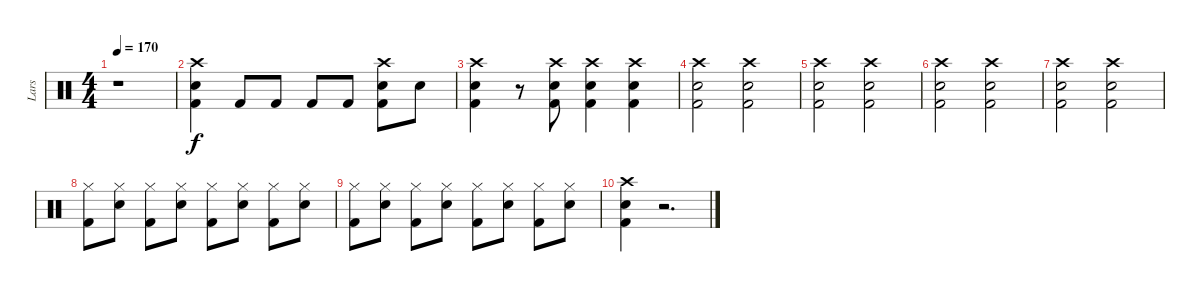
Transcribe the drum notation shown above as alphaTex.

\track ("Lars" "Lars") {instrument percussion}
\staff {score}
\articulation defaults
\ts (4 4)
\tempo 170
\clef neutral
\ks c
r.1{dy f} |
("Crash high (hit)" "Electric Snare (hit)" "Kick (hit) 2").4 "Kick (hit) 2".8 "Kick (hit) 2".8 "Kick (hit) 2".8 "Kick (hit) 2".8 ("Crash high (hit)" "Electric Snare (hit)" "Kick (hit) 2").8 "Electric Snare (hit)".8 |
("Crash high (hit)" "Electric Snare (hit)" "Kick (hit) 2").4 r.8 ("Crash high (hit)" "Electric Snare (hit)" "Kick (hit) 2").8 ("Crash high (hit)" "Electric Snare (hit)" "Kick (hit) 2").4 ("Crash high (hit)" "Electric Snare (hit)" "Kick (hit) 2").4 |
("Crash high (hit)" "Electric Snare (hit)" "Kick (hit) 2").2 ("Crash high (hit)" "Electric Snare (hit)" "Kick (hit) 2").2 |
("Crash high (hit)" "Electric Snare (hit)" "Kick (hit) 2").2 ("Crash high (hit)" "Electric Snare (hit)" "Kick (hit) 2").2 |
("Crash high (hit)" "Electric Snare (hit)" "Kick (hit) 2").2 ("Crash high (hit)" "Electric Snare (hit)" "Kick (hit) 2").2 |
("Crash high (hit)" "Electric Snare (hit)" "Kick (hit) 2").2 ("Crash high (hit)" "Electric Snare (hit)" "Kick (hit) 2").2 |
("Hi-Hat (closed)" "Kick (hit) 2").8 ("Hi-Hat (closed)" "Electric Snare (hit)").8 ("Hi-Hat (closed)" "Kick (hit) 2").8 ("Hi-Hat (closed)" "Electric Snare (hit)").8 ("Hi-Hat (closed)" "Kick (hit) 2").8 ("Hi-Hat (closed)" "Electric Snare (hit)").8 ("Hi-Hat (closed)" "Kick (hit) 2").8 ("Hi-Hat (closed)" "Electric Snare (hit)").8 |
("Hi-Hat (closed)" "Kick (hit) 2").8 ("Hi-Hat (closed)" "Electric Snare (hit)").8 ("Hi-Hat (closed)" "Kick (hit) 2").8 ("Hi-Hat (closed)" "Electric Snare (hit)").8 ("Hi-Hat (closed)" "Kick (hit) 2").8 ("Hi-Hat (closed)" "Electric Snare (hit)").8 ("Hi-Hat (closed)" "Kick (hit) 2").8 ("Hi-Hat (closed)" "Electric Snare (hit)").8 |
("Crash high (hit)" "Electric Snare (hit)" "Kick (hit) 2").4 r.2{d}
